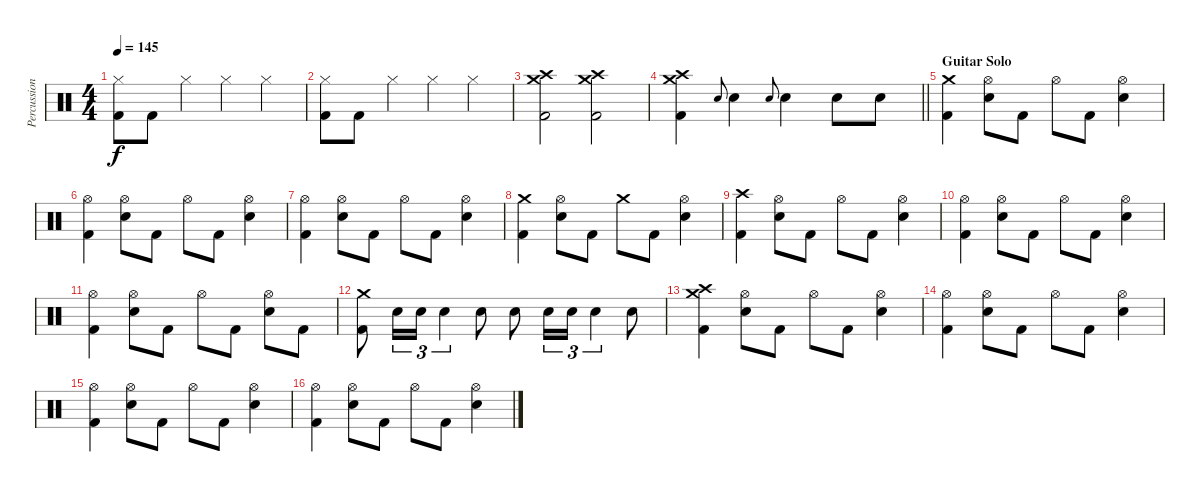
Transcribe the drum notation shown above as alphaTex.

\track ("Percussion" "Percussion") {instrument percussion}
\staff {score}
\articulation defaults
\ts (4 4)
\tempo 145
\clef neutral
\ks c
("Hi-Hat (closed)" "Kick (hit) 2").8{dy f} "Kick (hit) 2".8 "Hi-Hat (closed)".4 "Hi-Hat (closed)".4 "Hi-Hat (closed)".4 |
("Hi-Hat (closed)" "Kick (hit) 2").8 "Kick (hit) 2".8 "Hi-Hat (closed)".4 "Hi-Hat (closed)".4 "Hi-Hat (closed)".4 |
("Crash medium (hit)" "Crash high (hit)" "Kick (hit) 2").2 ("Crash medium (hit)" "Crash high (hit)" "Kick (hit) 2").2 |
\barLineRight lightlight
("Crash medium (hit)" "Crash high (hit)" "Kick (hit) 2").4 "Electric Snare (hit)".8{gr onbeat} "Electric Snare (hit)".4 "Electric Snare (hit)".8{gr onbeat} "Electric Snare (hit)".4 "Electric Snare (hit)".8 "Electric Snare (hit)".8 |
\section ("" "Guitar Solo")
("Kick (hit) 2" "Crash medium (hit)").4 ("Electric Snare (hit)" "Hi-Hat (open)").8 "Kick (hit) 2".8 "Hi-Hat (open)".8 "Kick (hit) 2".8 ("Electric Snare (hit)" "Hi-Hat (open)").4 |
("Kick (hit) 2" "Hi-Hat (open)").4 ("Electric Snare (hit)" "Hi-Hat (open)").8 "Kick (hit) 2".8 "Hi-Hat (open)".8 "Kick (hit) 2".8 ("Electric Snare (hit)" "Hi-Hat (open)").4 |
("Kick (hit) 2" "Hi-Hat (open)").4 ("Electric Snare (hit)" "Hi-Hat (open)").8 "Kick (hit) 2".8 "Hi-Hat (open)".8 "Kick (hit) 2".8 ("Electric Snare (hit)" "Hi-Hat (open)").4 |
("Kick (hit) 2" "Crash medium (hit)").4 ("Electric Snare (hit)" "Hi-Hat (open)").8 "Kick (hit) 2".8 "Crash medium (hit)".8 "Kick (hit) 2".8 ("Electric Snare (hit)" "Hi-Hat (open)").4 |
("Kick (hit) 2" "Crash high (hit)").4 ("Electric Snare (hit)" "Hi-Hat (open)").8 "Kick (hit) 2".8 "Hi-Hat (open)".8 "Kick (hit) 2".8 ("Electric Snare (hit)" "Hi-Hat (open)").4 |
("Kick (hit) 2" "Hi-Hat (open)").4 ("Electric Snare (hit)" "Hi-Hat (open)").8 "Kick (hit) 2".8 "Hi-Hat (open)".8 "Kick (hit) 2".8 ("Electric Snare (hit)" "Hi-Hat (open)").4 |
("Kick (hit) 2" "Hi-Hat (open)").4 ("Electric Snare (hit)" "Hi-Hat (open)").8 "Kick (hit) 2".8 "Hi-Hat (open)".8 "Kick (hit) 2".8 ("Electric Snare (hit)" "Hi-Hat (open)").8 "Kick (hit) 2".8 |
("Kick (hit) 2" "Crash medium (hit)").8 "Electric Snare (hit)".16{tu (3 2)} "Electric Snare (hit)".16{tu (3 2)} "Electric Snare (hit)".4{tu (3 2)} "Electric Snare (hit)".8 "Electric Snare (hit)".8 "Electric Snare (hit)".16{tu (3 2)} "Electric Snare (hit)".16{tu (3 2)} "Electric Snare (hit)".4{tu (3 2)} "Electric Snare (hit)".8 |
("Kick (hit) 2" "Crash high (hit)" "Crash medium (hit)").4 ("Electric Snare (hit)" "Hi-Hat (open)").8 "Kick (hit) 2".8 "Hi-Hat (open)".8 "Kick (hit) 2".8 ("Electric Snare (hit)" "Hi-Hat (open)").4 |
("Kick (hit) 2" "Hi-Hat (open)").4 ("Electric Snare (hit)" "Hi-Hat (open)").8 "Kick (hit) 2".8 "Hi-Hat (open)".8 "Kick (hit) 2".8 ("Electric Snare (hit)" "Hi-Hat (open)").4 |
("Kick (hit) 2" "Hi-Hat (open)").4 ("Electric Snare (hit)" "Hi-Hat (open)").8 "Kick (hit) 2".8 "Hi-Hat (open)".8 "Kick (hit) 2".8 ("Electric Snare (hit)" "Hi-Hat (open)").4 |
("Kick (hit) 2" "Hi-Hat (open)").4 ("Electric Snare (hit)" "Hi-Hat (open)").8 "Kick (hit) 2".8 "Hi-Hat (open)".8 "Kick (hit) 2".8 ("Electric Snare (hit)" "Hi-Hat (open)").4
